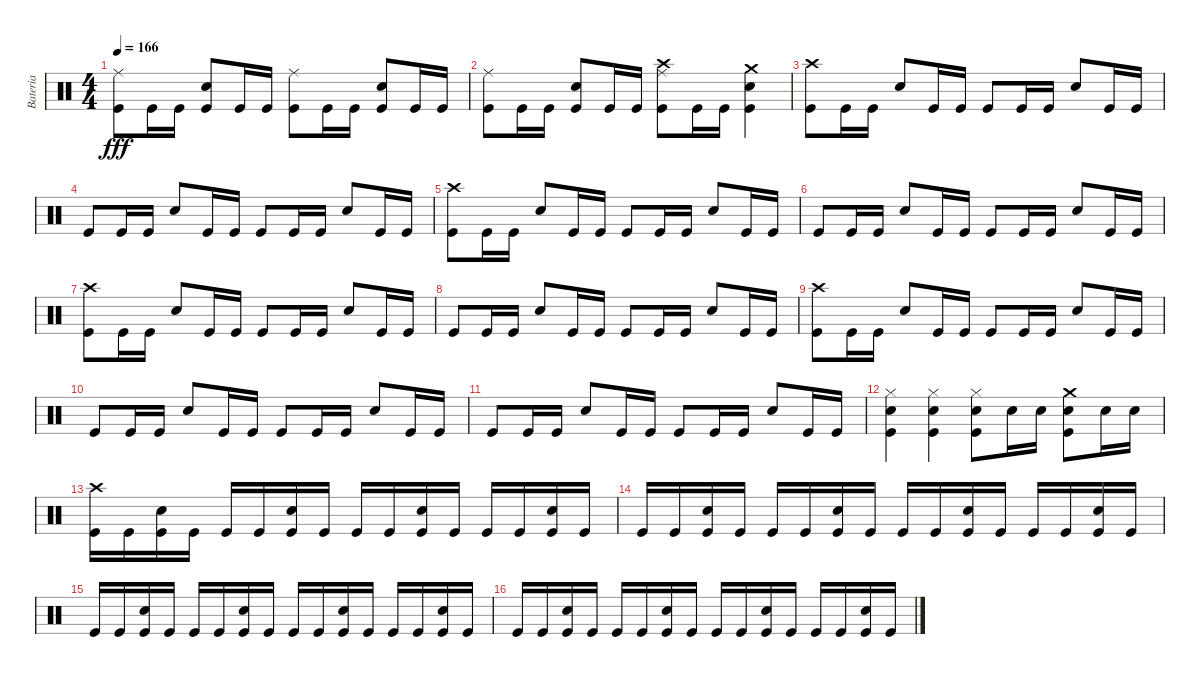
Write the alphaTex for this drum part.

\track ("Bateria" "Bateria") {instrument percussion}
\staff {score}
\articulation defaults
\ts (4 4)
\tempo 166
\clef neutral
\ks c
("Ride (middle)" "Kick (hit)").8{dy fff} "Kick (hit)".16 "Kick (hit)".16 ("Snare (hit) 2" "Kick (hit)").8 "Kick (hit)".16 "Kick (hit)".16 ("Ride (middle)" "Kick (hit)").8 "Kick (hit)".16 "Kick (hit)".16 ("Snare (hit) 2" "Kick (hit)").8 "Kick (hit)".16 "Kick (hit)".16 |
("Ride (middle)" "Kick (hit)").8 "Kick (hit)".16 "Kick (hit)".16 ("Snare (hit) 2" "Kick (hit)").8 "Kick (hit)".16 "Kick (hit)".16 ("Ride (middle)" "Kick (hit)" "Crash high (hit)").8 "Kick (hit)".16 "Kick (hit)".16 ("Kick (hit)" "Crash medium (hit)" "Snare (hit) 2").4 |
("Kick (hit)" "Crash high (hit)").8 "Kick (hit)".16 "Kick (hit)".16 "Snare (hit) 2".8 "Kick (hit)".16 "Kick (hit)".16 "Kick (hit)".8 "Kick (hit)".16 "Kick (hit)".16 "Snare (hit) 2".8 "Kick (hit)".16 "Kick (hit)".16 |
"Kick (hit)".8 "Kick (hit)".16 "Kick (hit)".16 "Snare (hit) 2".8 "Kick (hit)".16 "Kick (hit)".16 "Kick (hit)".8 "Kick (hit)".16 "Kick (hit)".16 "Snare (hit) 2".8 "Kick (hit)".16 "Kick (hit)".16 |
("Kick (hit)" "Crash high (hit)").8 "Kick (hit)".16 "Kick (hit)".16 "Snare (hit) 2".8 "Kick (hit)".16 "Kick (hit)".16 "Kick (hit)".8 "Kick (hit)".16 "Kick (hit)".16 "Snare (hit) 2".8 "Kick (hit)".16 "Kick (hit)".16 |
"Kick (hit)".8 "Kick (hit)".16 "Kick (hit)".16 "Snare (hit) 2".8 "Kick (hit)".16 "Kick (hit)".16 "Kick (hit)".8 "Kick (hit)".16 "Kick (hit)".16 "Snare (hit) 2".8 "Kick (hit)".16 "Kick (hit)".16 |
("Kick (hit)" "Crash high (hit)").8 "Kick (hit)".16 "Kick (hit)".16 "Snare (hit) 2".8 "Kick (hit)".16 "Kick (hit)".16 "Kick (hit)".8 "Kick (hit)".16 "Kick (hit)".16 "Snare (hit) 2".8 "Kick (hit)".16 "Kick (hit)".16 |
"Kick (hit)".8 "Kick (hit)".16 "Kick (hit)".16 "Snare (hit) 2".8 "Kick (hit)".16 "Kick (hit)".16 "Kick (hit)".8 "Kick (hit)".16 "Kick (hit)".16 "Snare (hit) 2".8 "Kick (hit)".16 "Kick (hit)".16 |
("Kick (hit)" "Crash high (hit)").8 "Kick (hit)".16 "Kick (hit)".16 "Snare (hit) 2".8 "Kick (hit)".16 "Kick (hit)".16 "Kick (hit)".8 "Kick (hit)".16 "Kick (hit)".16 "Snare (hit) 2".8 "Kick (hit)".16 "Kick (hit)".16 |
"Kick (hit)".8 "Kick (hit)".16 "Kick (hit)".16 "Snare (hit) 2".8 "Kick (hit)".16 "Kick (hit)".16 "Kick (hit)".8 "Kick (hit)".16 "Kick (hit)".16 "Snare (hit) 2".8 "Kick (hit)".16 "Kick (hit)".16 |
"Kick (hit)".8 "Kick (hit)".16 "Kick (hit)".16 "Snare (hit) 2".8 "Kick (hit)".16 "Kick (hit)".16 "Kick (hit)".8 "Kick (hit)".16 "Kick (hit)".16 "Snare (hit) 2".8 "Kick (hit)".16 "Kick (hit)".16 |
("Kick (hit)" "Snare (hit) 2" "Hi-Hat (closed)").4 ("Kick (hit)" "Snare (hit) 2" "Hi-Hat (closed)").4 ("Kick (hit)" "Hi-Hat (closed)" "Snare (hit) 2").8 "Snare (hit) 2".16 "Snare (hit) 2".16 ("Kick (hit)" "Crash medium (hit)" "Snare (hit) 2").8 "Snare (hit) 2".16 "Snare (hit) 2".16 |
("Kick (hit)" "Crash high (hit)").16 "Kick (hit)".16 ("Snare (hit) 2" "Kick (hit)").16 "Kick (hit)".16 "Kick (hit)".16 "Kick (hit)".16 ("Snare (hit) 2" "Kick (hit)").16 "Kick (hit)".16 "Kick (hit)".16 "Kick (hit)".16 ("Snare (hit) 2" "Kick (hit)").16 "Kick (hit)".16 "Kick (hit)".16 "Kick (hit)".16 ("Snare (hit) 2" "Kick (hit)").16 "Kick (hit)".16 |
"Kick (hit)".16 "Kick (hit)".16 ("Snare (hit) 2" "Kick (hit)").16 "Kick (hit)".16 "Kick (hit)".16 "Kick (hit)".16 ("Snare (hit) 2" "Kick (hit)").16 "Kick (hit)".16 "Kick (hit)".16 "Kick (hit)".16 ("Snare (hit) 2" "Kick (hit)").16 "Kick (hit)".16 "Kick (hit)".16 "Kick (hit)".16 ("Snare (hit) 2" "Kick (hit)").16 "Kick (hit)".16 |
"Kick (hit)".16 "Kick (hit)".16 ("Snare (hit) 2" "Kick (hit)").16 "Kick (hit)".16 "Kick (hit)".16 "Kick (hit)".16 ("Snare (hit) 2" "Kick (hit)").16 "Kick (hit)".16 "Kick (hit)".16 "Kick (hit)".16 ("Snare (hit) 2" "Kick (hit)").16 "Kick (hit)".16 "Kick (hit)".16 "Kick (hit)".16 ("Snare (hit) 2" "Kick (hit)").16 "Kick (hit)".16 |
"Kick (hit)".16 "Kick (hit)".16 ("Snare (hit) 2" "Kick (hit)").16 "Kick (hit)".16 "Kick (hit)".16 "Kick (hit)".16 ("Snare (hit) 2" "Kick (hit)").16 "Kick (hit)".16 "Kick (hit)".16 "Kick (hit)".16 ("Snare (hit) 2" "Kick (hit)").16 "Kick (hit)".16 "Kick (hit)".16 "Kick (hit)".16 ("Snare (hit) 2" "Kick (hit)").16 "Kick (hit)".16
